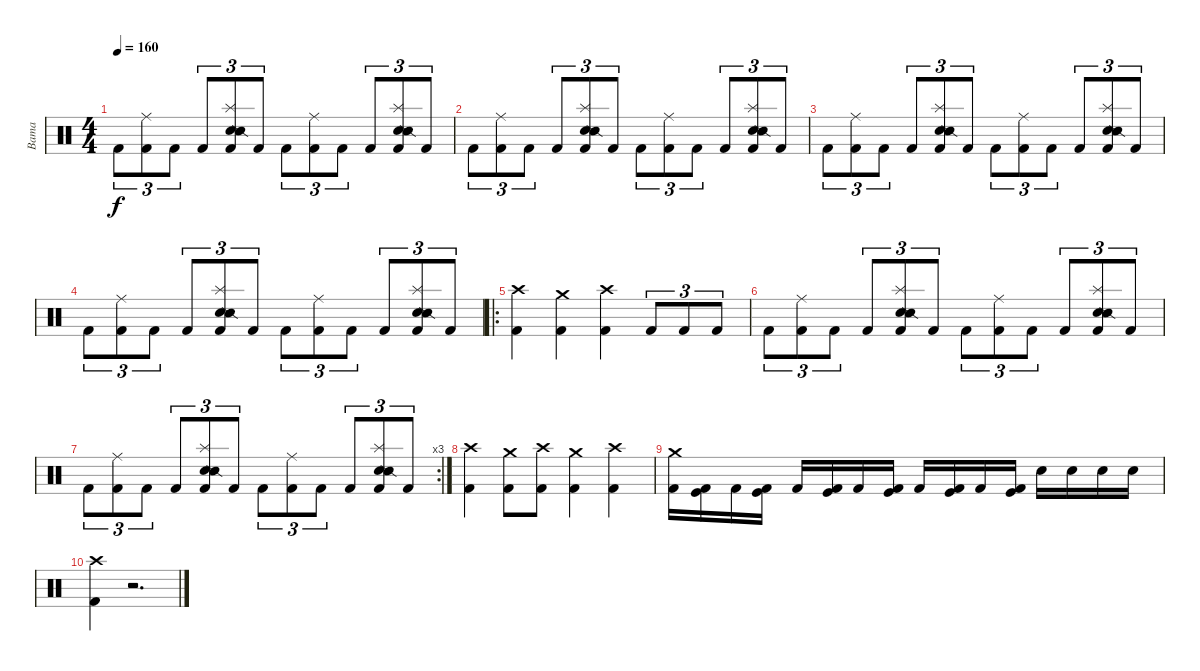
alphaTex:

\track ("Bama" "Bama") {instrument percussion}
\staff {score}
\articulation defaults
\ts (4 4)
\tempo 160
\clef neutral
\ks c "Kick (hit) 2".8{tu (3 2) dy f}
("Ride (middle)" "Kick (hit) 2").8{tu (3 2)} "Kick (hit) 2".8{tu (3 2)} "Kick (hit) 2".8{tu (3 2)} ("Splash (hit)" "Electric Snare (hit)" "Snare (side stick) 2" "Kick (hit) 2").8{tu (3 2)} "Kick (hit) 2".8{tu (3 2)} "Kick (hit) 2".8{tu (3 2)} ("Ride (middle)" "Kick (hit) 2").8{tu (3 2)} "Kick (hit) 2".8{tu (3 2)} "Kick (hit) 2".8{tu (3 2)} ("Splash (hit)" "Electric Snare (hit)" "Snare (side stick) 2" "Kick (hit) 2").8{tu (3 2)} "Kick (hit) 2".8{tu (3 2)} |
"Kick (hit) 2".8{tu (3 2)} ("Ride (middle)" "Kick (hit) 2").8{tu (3 2)} "Kick (hit) 2".8{tu (3 2)} "Kick (hit) 2".8{tu (3 2)} ("Splash (hit)" "Electric Snare (hit)" "Snare (side stick) 2" "Kick (hit) 2").8{tu (3 2)} "Kick (hit) 2".8{tu (3 2)} "Kick (hit) 2".8{tu (3 2)} ("Ride (middle)" "Kick (hit) 2").8{tu (3 2)} "Kick (hit) 2".8{tu (3 2)} "Kick (hit) 2".8{tu (3 2)} ("Splash (hit)" "Electric Snare (hit)" "Snare (side stick) 2" "Kick (hit) 2").8{tu (3 2)} "Kick (hit) 2".8{tu (3 2)} |
"Kick (hit) 2".8{tu (3 2)} ("Ride (middle)" "Kick (hit) 2").8{tu (3 2)} "Kick (hit) 2".8{tu (3 2)} "Kick (hit) 2".8{tu (3 2)} ("Splash (hit)" "Electric Snare (hit)" "Snare (side stick) 2" "Kick (hit) 2").8{tu (3 2)} "Kick (hit) 2".8{tu (3 2)} "Kick (hit) 2".8{tu (3 2)} ("Ride (middle)" "Kick (hit) 2").8{tu (3 2)} "Kick (hit) 2".8{tu (3 2)} "Kick (hit) 2".8{tu (3 2)} ("Splash (hit)" "Electric Snare (hit)" "Snare (side stick) 2" "Kick (hit) 2").8{tu (3 2)} "Kick (hit) 2".8{tu (3 2)} |
"Kick (hit) 2".8{tu (3 2)} ("Ride (middle)" "Kick (hit) 2").8{tu (3 2)} "Kick (hit) 2".8{tu (3 2)} "Kick (hit) 2".8{tu (3 2)} ("Splash (hit)" "Electric Snare (hit)" "Snare (side stick) 2" "Kick (hit) 2").8{tu (3 2)} "Kick (hit) 2".8{tu (3 2)} "Kick (hit) 2".8{tu (3 2)} ("Ride (middle)" "Kick (hit) 2").8{tu (3 2)} "Kick (hit) 2".8{tu (3 2)} "Kick (hit) 2".8{tu (3 2)} ("Splash (hit)" "Electric Snare (hit)" "Snare (side stick) 2" "Kick (hit) 2").8{tu (3 2)} "Kick (hit) 2".8{tu (3 2)} |
\ro
("Crash high (hit)" "Kick (hit) 2").4 ("Crash medium (hit)" "Kick (hit) 2").4 ("Crash high (hit)" "Kick (hit) 2").4 "Kick (hit) 2".8{tu (3 2)} "Kick (hit) 2".8{tu (3 2)} "Kick (hit) 2".8{tu (3 2)} |
"Kick (hit) 2".8{tu (3 2)} ("Ride (middle)" "Kick (hit) 2").8{tu (3 2)} "Kick (hit) 2".8{tu (3 2)} "Kick (hit) 2".8{tu (3 2)} ("Splash (hit)" "Electric Snare (hit)" "Snare (side stick) 2" "Kick (hit) 2").8{tu (3 2)} "Kick (hit) 2".8{tu (3 2)} "Kick (hit) 2".8{tu (3 2)} ("Ride (middle)" "Kick (hit) 2").8{tu (3 2)} "Kick (hit) 2".8{tu (3 2)} "Kick (hit) 2".8{tu (3 2)} ("Splash (hit)" "Electric Snare (hit)" "Snare (side stick) 2" "Kick (hit) 2").8{tu (3 2)} "Kick (hit) 2".8{tu (3 2)} |
\rc 3 "Kick (hit) 2".8{tu (3 2)}
("Ride (middle)" "Kick (hit) 2").8{tu (3 2)} "Kick (hit) 2".8{tu (3 2)} "Kick (hit) 2".8{tu (3 2)} ("Splash (hit)" "Electric Snare (hit)" "Snare (side stick) 2" "Kick (hit) 2").8{tu (3 2)} "Kick (hit) 2".8{tu (3 2)} "Kick (hit) 2".8{tu (3 2)} ("Ride (middle)" "Kick (hit) 2").8{tu (3 2)} "Kick (hit) 2".8{tu (3 2)} "Kick (hit) 2".8{tu (3 2)} ("Splash (hit)" "Electric Snare (hit)" "Snare (side stick) 2" "Kick (hit) 2").8{tu (3 2)} "Kick (hit) 2".8{tu (3 2)} |
("Crash high (hit)" "Kick (hit) 2").4 ("Crash medium (hit)" "Kick (hit) 2").8 ("Crash high (hit)" "Kick (hit) 2").8 ("Crash medium (hit)" "Kick (hit) 2").4 ("Crash high (hit)" "Kick (hit) 2").4 |
("Crash medium (hit)" "Kick (hit) 2").16 ("Kick (hit)" "Kick (hit) 2").16 "Kick (hit) 2".16 ("Kick (hit)" "Kick (hit) 2").16 "Kick (hit) 2".16 ("Kick (hit)" "Kick (hit) 2").16 "Kick (hit) 2".16 ("Kick (hit)" "Kick (hit) 2").16 "Kick (hit) 2".16 ("Kick (hit)" "Kick (hit) 2").16 "Kick (hit) 2".16 ("Kick (hit)" "Kick (hit) 2").16 "Electric Snare (hit)".16 "Electric Snare (hit)".16 "Electric Snare (hit)".16 "Electric Snare (hit)".16 |
("Crash high (hit)" "Kick (hit) 2").4 r.2{d}
